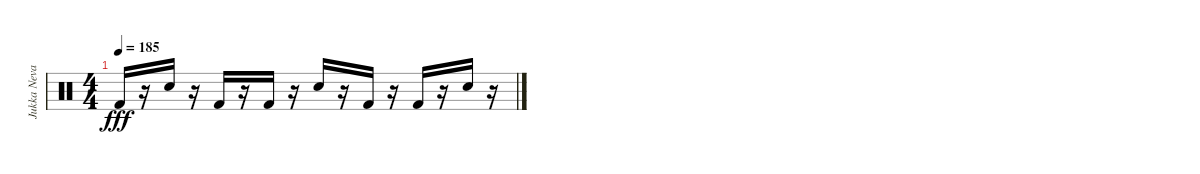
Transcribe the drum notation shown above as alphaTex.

\track ("Jukka Nevalinen" "Jukka Neva") {instrument percussion}
\staff {score}
\articulation defaults
\ts (4 4)
\tempo 185
\clef neutral
\ks c "Kick (hit) 2".16{dy fff volume 0}
r.16 "Snare (hit) 2".16 r.16 "Kick (hit) 2".16{volume 0} r.16 "Kick (hit) 2".16 r.16 "Snare (hit) 2".16{volume 0} r.16 "Kick (hit) 2".16 r.16 "Kick (hit) 2".16{volume 0} r.16 "Snare (hit) 2".16 r.16
